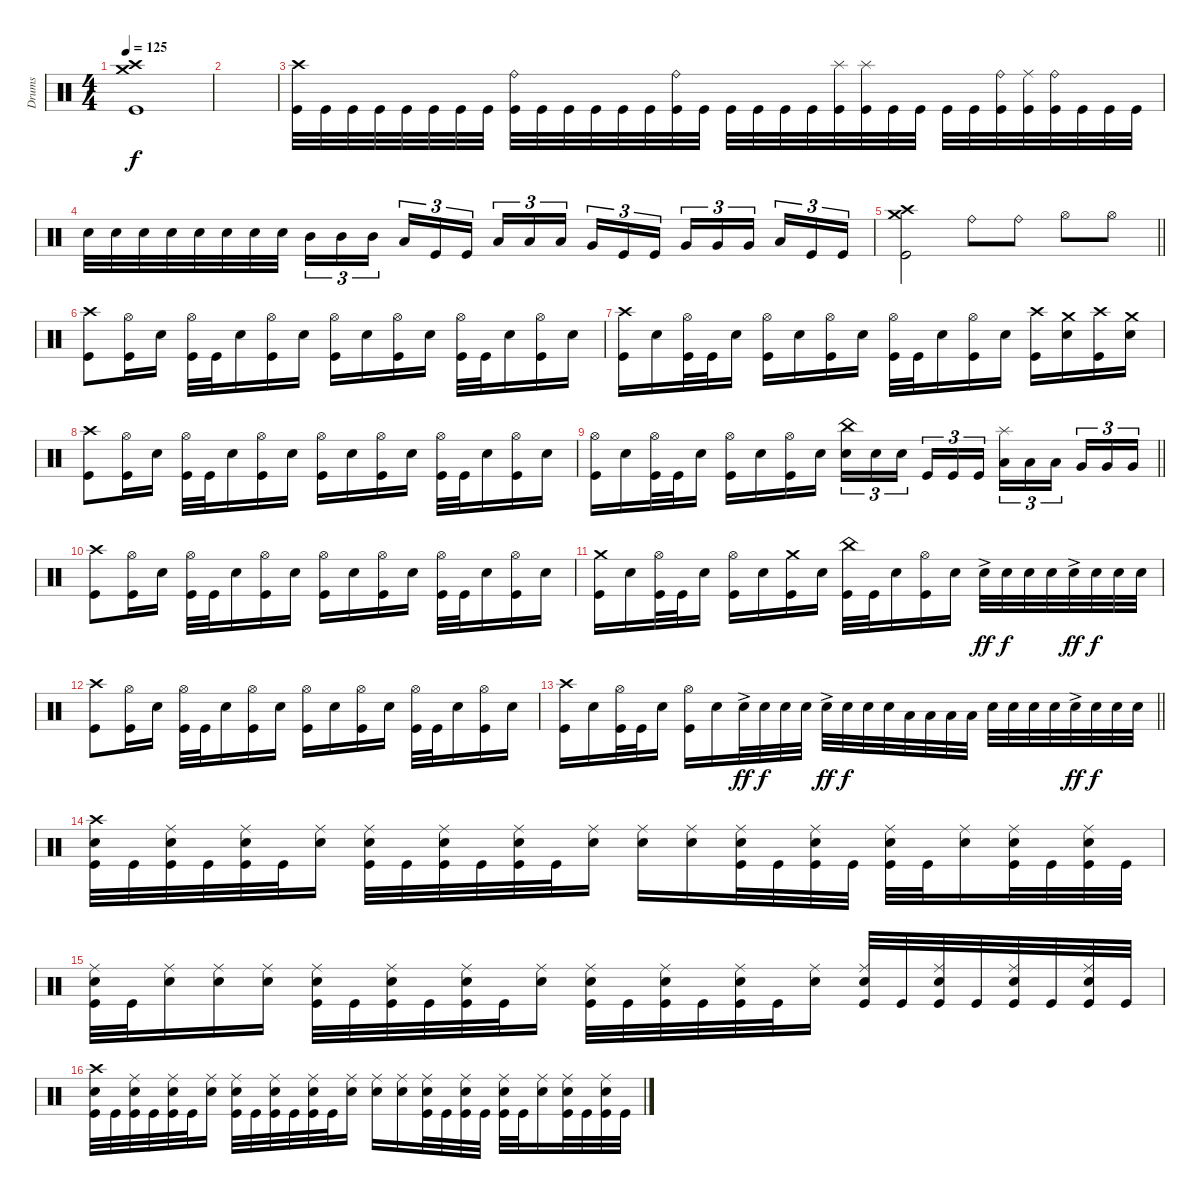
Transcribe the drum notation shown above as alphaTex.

\track ("Drums" "Drums") {instrument percussion}
\staff
\articulation defaults
\ts (4 4)
\section ("" "")
\tempo 125
\clef neutral
\ks c
("Crash high (hit)" "Crash medium (hit)" "Kick (hit)").1{dy f} |
|
("Crash high (hit)" "Kick (hit)").32 "Kick (hit)".32 "Kick (hit)".32 "Kick (hit)".32 "Kick (hit)".32 "Kick (hit)".32 "Kick (hit)".32 "Kick (hit)".32 ("Ride (bell)" "Kick (hit)").32 "Kick (hit)".32 "Kick (hit)".32 "Kick (hit)".32 "Kick (hit)".32 "Kick (hit)".32 ("Ride (bell)" "Kick (hit)").32 "Kick (hit)".32 "Kick (hit)".32 "Kick (hit)".32 "Kick (hit)".32 "Kick (hit)".32 ("Splash (hit)" "Kick (hit)").32 ("Splash (hit)" "Kick (hit)").32 "Kick (hit)".32 "Kick (hit)".32 "Kick (hit)".32 "Kick (hit)".32 ("Ride (bell)" "Kick (hit)").32 ("Ride (middle)" "Kick (hit)").32 ("Ride (bell)" "Kick (hit)").32 "Kick (hit)".32 "Kick (hit)".32 "Kick (hit)".32 |
"Electric Snare (hit)".32 "Electric Snare (hit)".32 "Electric Snare (hit)".32 "Electric Snare (hit)".32 "Electric Snare (hit)".32 "Electric Snare (hit)".32 "Electric Snare (hit)".32 "Electric Snare (hit)".32 "Mid Tom (hit)".16{tu (3 2)} "Mid Tom (hit)".16{tu (3 2)} "Mid Tom (hit)".16{tu (3 2) beam splitsecondary} "Low Tom (hit)".16{tu (3 2)} "Kick (hit)".16{tu (3 2)} "Kick (hit)".16{tu (3 2)} "Low Tom (hit)".16{tu (3 2)} "Low Tom (hit)".16{tu (3 2)} "Low Tom (hit)".16{tu (3 2) beam splitsecondary} "Very Low Tom (hit)".16{tu (3 2)} "Kick (hit)".16{tu (3 2)} "Kick (hit)".16{tu (3 2)} "Very Low Tom (hit)".16{tu (3 2)} "Very Low Tom (hit)".16{tu (3 2)} "Very Low Tom (hit)".16{tu (3 2) beam splitsecondary} "Low Floor Tom (hit)".16{tu (3 2)} "Kick (hit)".16{tu (3 2)} "Kick (hit)".16{tu (3 2)} |
\barLineRight lightlight
("Crash high (hit)" "Crash medium (hit)" "Kick (hit)").2 "Ride (bell)".8 "Ride (bell)".8 "Hi-Hat (open)".8 "Hi-Hat (open)".8 |
\section ("" "")
("Crash high (hit)" "Kick (hit)").8 ("Hi-Hat (open)" "Kick (hit)").16 "Electric Snare (hit)".16 ("Hi-Hat (open)" "Kick (hit)").32 "Kick (hit)".32 "Electric Snare (hit)".16 ("Hi-Hat (open)" "Kick (hit)").16 "Electric Snare (hit)".16 ("Hi-Hat (open)" "Kick (hit)").16 "Electric Snare (hit)".16 ("Hi-Hat (open)" "Kick (hit)").16 "Electric Snare (hit)".16 ("Hi-Hat (open)" "Kick (hit)").32 "Kick (hit)".32 "Electric Snare (hit)".16 ("Hi-Hat (open)" "Kick (hit)").16 "Electric Snare (hit)".16 |
("Crash high (hit)" "Kick (hit)").16 "Electric Snare (hit)".16 ("Hi-Hat (open)" "Kick (hit)").32 "Kick (hit)".32 "Electric Snare (hit)".16 ("Hi-Hat (open)" "Kick (hit)").16 "Electric Snare (hit)".16 ("Hi-Hat (open)" "Kick (hit)").16 "Electric Snare (hit)".16 ("Hi-Hat (open)" "Kick (hit)").32 "Kick (hit)".32 "Electric Snare (hit)".16 ("Hi-Hat (open)" "Kick (hit)").16 "Electric Snare (hit)".16 ("Crash high (hit)" "Kick (hit)").16 ("Crash medium (hit)" "Electric Snare (hit)").16 ("Crash high (hit)" "Kick (hit)").16 ("Crash medium (hit)" "Electric Snare (hit)").16 |
("Crash high (hit)" "Kick (hit)").8 ("Hi-Hat (open)" "Kick (hit)").16 "Electric Snare (hit)".16 ("Hi-Hat (open)" "Kick (hit)").32 "Kick (hit)".32 "Electric Snare (hit)".16 ("Hi-Hat (open)" "Kick (hit)").16 "Electric Snare (hit)".16 ("Hi-Hat (open)" "Kick (hit)").16 "Electric Snare (hit)".16 ("Hi-Hat (open)" "Kick (hit)").16 "Electric Snare (hit)".16 ("Hi-Hat (open)" "Kick (hit)").32 "Kick (hit)".32 "Electric Snare (hit)".16 ("Hi-Hat (open)" "Kick (hit)").16 "Electric Snare (hit)".16 |
\barLineRight lightlight
("Hi-Hat (open)" "Kick (hit)").16 "Electric Snare (hit)".16 ("Hi-Hat (open)" "Kick (hit)").32 "Kick (hit)".32 "Electric Snare (hit)".16 ("Hi-Hat (open)" "Kick (hit)").16 "Electric Snare (hit)".16 ("Hi-Hat (open)" "Kick (hit)").16 "Electric Snare (hit)".16 ("China (hit)" "Electric Snare (hit)").16{tu (3 2)} "Electric Snare (hit)".16{tu (3 2)} "Electric Snare (hit)".16{tu (3 2) beam splitsecondary} "Kick (hit)".16{tu (3 2)} "Kick (hit)".16{tu (3 2)} "Kick (hit)".16{tu (3 2)} ("Splash (hit)" "Low Tom (hit)").16{tu (3 2)} "Low Tom (hit)".16{tu (3 2)} "Low Tom (hit)".16{tu (3 2) beam splitsecondary} "Very Low Tom (hit)".16{tu (3 2)} "Very Low Tom (hit)".16{tu (3 2)} "Very Low Tom (hit)".16{tu (3 2)} |
("Crash high (hit)" "Kick (hit)").8 ("Hi-Hat (open)" "Kick (hit)").16 "Electric Snare (hit)".16 ("Hi-Hat (open)" "Kick (hit)").32 "Kick (hit)".32 "Electric Snare (hit)".16 ("Hi-Hat (open)" "Kick (hit)").16 "Electric Snare (hit)".16 ("Hi-Hat (open)" "Kick (hit)").16 "Electric Snare (hit)".16 ("Hi-Hat (open)" "Kick (hit)").16 "Electric Snare (hit)".16 ("Hi-Hat (open)" "Kick (hit)").32 "Kick (hit)".32 "Electric Snare (hit)".16 ("Hi-Hat (open)" "Kick (hit)").16 "Electric Snare (hit)".16 |
("Crash medium (hit)" "Kick (hit)").16 "Electric Snare (hit)".16 ("Hi-Hat (open)" "Kick (hit)").32 "Kick (hit)".32 "Electric Snare (hit)".16 ("Hi-Hat (open)" "Kick (hit)").16 "Electric Snare (hit)".16 ("Crash medium (hit)" "Kick (hit)").16 "Electric Snare (hit)".16 ("China (hit)" "Kick (hit)").32 "Kick (hit)".32 "Electric Snare (hit)".16 ("Hi-Hat (open)" "Kick (hit)").16 "Electric Snare (hit)".16 "Electric Snare (hit)"{ac}.32{dy ff} "Electric Snare (hit)".32{dy f} "Electric Snare (hit)".32 "Electric Snare (hit)".32 "Electric Snare (hit)"{ac}.32{dy ff} "Electric Snare (hit)".32{dy f} "Electric Snare (hit)".32 "Electric Snare (hit)".32 |
("Crash high (hit)" "Kick (hit)").8 ("Hi-Hat (open)" "Kick (hit)").16 "Electric Snare (hit)".16 ("Hi-Hat (open)" "Kick (hit)").32 "Kick (hit)".32 "Electric Snare (hit)".16 ("Hi-Hat (open)" "Kick (hit)").16 "Electric Snare (hit)".16 ("Hi-Hat (open)" "Kick (hit)").16 "Electric Snare (hit)".16 ("Hi-Hat (open)" "Kick (hit)").16 "Electric Snare (hit)".16 ("Hi-Hat (open)" "Kick (hit)").32 "Kick (hit)".32 "Electric Snare (hit)".16 ("Hi-Hat (open)" "Kick (hit)").16 "Electric Snare (hit)".16 |
\barLineRight lightlight
("Crash high (hit)" "Kick (hit)").16 "Electric Snare (hit)".16 ("Hi-Hat (open)" "Kick (hit)").32 "Kick (hit)".32 "Electric Snare (hit)".16 ("Hi-Hat (open)" "Kick (hit)").16 "Electric Snare (hit)".16 "Electric Snare (hit)"{ac}.32{dy ff} "Electric Snare (hit)".32{dy f} "Electric Snare (hit)".32 "Electric Snare (hit)".32 "Electric Snare (hit)"{ac}.32{dy ff} "Electric Snare (hit)".32{dy f} "Electric Snare (hit)".32 "Electric Snare (hit)".32 "Low Tom (hit)".32 "Low Tom (hit)".32 "Low Tom (hit)".32 "Low Tom (hit)".32 "Electric Snare (hit)".32 "Electric Snare (hit)".32 "Electric Snare (hit)".32 "Electric Snare (hit)".32 "Electric Snare (hit)"{ac}.32{dy ff} "Electric Snare (hit)".32{dy f} "Electric Snare (hit)".32 "Electric Snare (hit)".32 |
\section ("" "")
("Crash high (hit)" "Electric Snare (hit)" "Kick (hit)").32 "Kick (hit)".32 ("Ride (middle)" "Electric Snare (hit)" "Kick (hit)").32 "Kick (hit)".32 ("Ride (middle)" "Electric Snare (hit)" "Kick (hit)").32 "Kick (hit)".32 ("Ride (middle)" "Electric Snare (hit)").16 ("Ride (middle)" "Electric Snare (hit)" "Kick (hit)").32 "Kick (hit)".32 ("Ride (middle)" "Electric Snare (hit)" "Kick (hit)").32 "Kick (hit)".32 ("Ride (middle)" "Electric Snare (hit)" "Kick (hit)").32 "Kick (hit)".32 ("Ride (middle)" "Electric Snare (hit)").16 ("Ride (middle)" "Electric Snare (hit)").16 ("Ride (middle)" "Electric Snare (hit)").16 ("Ride (middle)" "Electric Snare (hit)" "Kick (hit)").32 "Kick (hit)".32 ("Ride (middle)" "Electric Snare (hit)" "Kick (hit)").32 "Kick (hit)".32 ("Ride (middle)" "Electric Snare (hit)" "Kick (hit)").32 "Kick (hit)".32 ("Ride (middle)" "Electric Snare (hit)").16 ("Ride (middle)" "Electric Snare (hit)" "Kick (hit)").32 "Kick (hit)".32 ("Ride (middle)" "Electric Snare (hit)" "Kick (hit)").32 "Kick (hit)".32 |
("Ride (middle)" "Electric Snare (hit)" "Kick (hit)").32 "Kick (hit)".32 ("Ride (middle)" "Electric Snare (hit)").16 ("Ride (middle)" "Electric Snare (hit)").16 ("Ride (middle)" "Electric Snare (hit)").16 ("Ride (middle)" "Electric Snare (hit)" "Kick (hit)").32 "Kick (hit)".32 ("Ride (middle)" "Electric Snare (hit)" "Kick (hit)").32 "Kick (hit)".32 ("Ride (middle)" "Electric Snare (hit)" "Kick (hit)").32 "Kick (hit)".32 ("Ride (middle)" "Electric Snare (hit)").16 ("Ride (middle)" "Electric Snare (hit)" "Kick (hit)").32 "Kick (hit)".32 ("Ride (middle)" "Electric Snare (hit)" "Kick (hit)").32 "Kick (hit)".32 ("Ride (middle)" "Electric Snare (hit)" "Kick (hit)").32 "Kick (hit)".32 ("Ride (middle)" "Electric Snare (hit)").16 ("Ride (middle)" "Electric Snare (hit)" "Kick (hit)").32 "Kick (hit)".32 ("Ride (middle)" "Electric Snare (hit)" "Kick (hit)").32 "Kick (hit)".32 ("Ride (middle)" "Electric Snare (hit)" "Kick (hit)").32 "Kick (hit)".32 ("Ride (middle)" "Electric Snare (hit)" "Kick (hit)").32 "Kick (hit)".32 |
("Crash high (hit)" "Electric Snare (hit)" "Kick (hit)").32 "Kick (hit)".32 ("Ride (middle)" "Electric Snare (hit)" "Kick (hit)").32 "Kick (hit)".32 ("Ride (middle)" "Electric Snare (hit)" "Kick (hit)").32 "Kick (hit)".32 ("Ride (middle)" "Electric Snare (hit)").16 ("Ride (middle)" "Electric Snare (hit)" "Kick (hit)").32 "Kick (hit)".32 ("Ride (middle)" "Electric Snare (hit)" "Kick (hit)").32 "Kick (hit)".32 ("Ride (middle)" "Electric Snare (hit)" "Kick (hit)").32 "Kick (hit)".32 ("Ride (middle)" "Electric Snare (hit)").16 ("Ride (middle)" "Electric Snare (hit)").16 ("Ride (middle)" "Electric Snare (hit)").16 ("Ride (middle)" "Electric Snare (hit)" "Kick (hit)").32 "Kick (hit)".32 ("Ride (middle)" "Electric Snare (hit)" "Kick (hit)").32 "Kick (hit)".32 ("Ride (middle)" "Electric Snare (hit)" "Kick (hit)").32 "Kick (hit)".32 ("Ride (middle)" "Electric Snare (hit)").16 ("Ride (middle)" "Electric Snare (hit)" "Kick (hit)").32 "Kick (hit)".32 ("Ride (middle)" "Electric Snare (hit)" "Kick (hit)").32 "Kick (hit)".32
